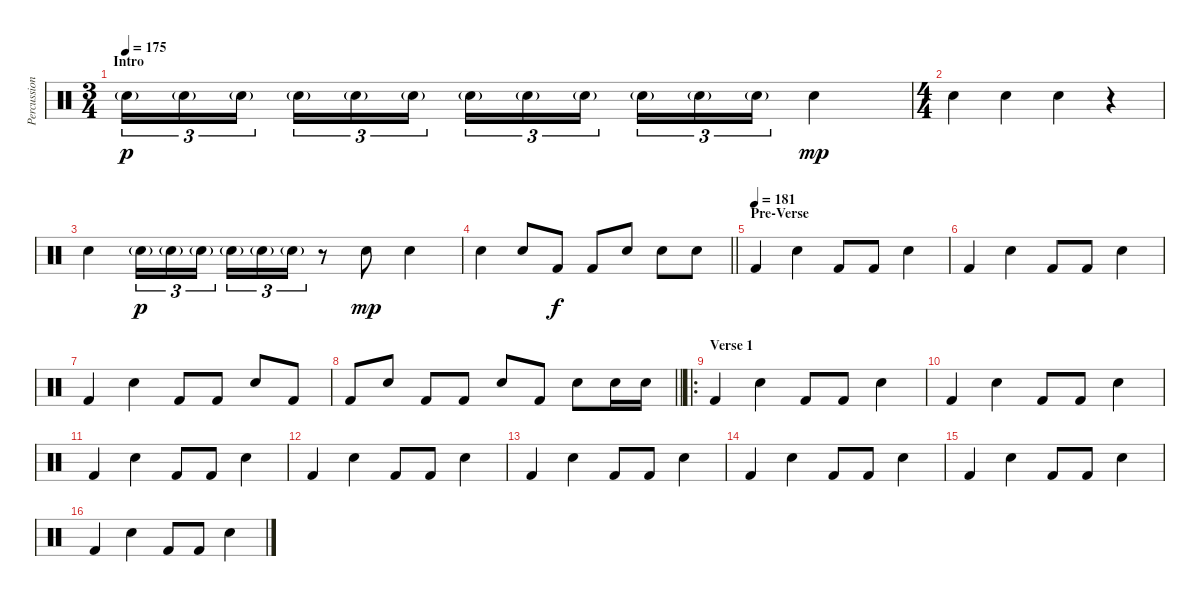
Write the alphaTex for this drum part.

\track ("Percussions" "Percussion") {instrument percussion}
\staff {score}
\articulation defaults
\ts (3 4)
\section ("" "Intro")
\tempo 175
\clef neutral
\ks c "Snare (hit) 2"{g}.16{tu (3 2) dy p} "Snare (hit) 2"{g}.16{tu (3 2)} "Snare (hit) 2"{g}.16{tu (3 2)} "Snare (hit) 2"{g}.16{tu (3 2)} "Snare (hit) 2"{g}.16{tu (3 2)} "Snare (hit) 2"{g}.16{tu (3 2)} "Snare (hit) 2"{g}.16{tu (3 2)} "Snare (hit) 2"{g}.16{tu (3 2)} "Snare (hit) 2"{g}.16{tu (3 2)} "Snare (hit) 2"{g}.16{tu (3 2)} "Snare (hit) 2"{g}.16{tu (3 2)} "Snare (hit) 2"{g}.16{tu (3 2)} "Snare (hit) 2".4{dy mp}
|
\ts (4 4)
"Snare (hit) 2".4 "Snare (hit) 2".4 "Snare (hit) 2".4 r.4 |
"Snare (hit) 2".4 "Snare (hit) 2"{g}.16{tu (3 2) dy p} "Snare (hit) 2"{g}.16{tu (3 2)} "Snare (hit) 2"{g}.16{tu (3 2)} "Snare (hit) 2"{g}.16{tu (3 2)} "Snare (hit) 2"{g}.16{tu (3 2)} "Snare (hit) 2"{g}.16{tu (3 2)} r.8 "Snare (hit) 2".8{dy mp} "Snare (hit) 2".4 |
\barLineRight lightlight "Snare (hit) 2".4 "Snare (hit) 2".8 "Kick (hit) 2".8{dy f} "Kick (hit) 2".8 "Snare (hit) 2".8 "Snare (hit) 2".8 "Snare (hit) 2".8
|
\section ("" "Pre-Verse")
\tempo (181)
"Kick (hit) 2".4 "Snare (hit) 2".4 "Kick (hit) 2".8 "Kick (hit) 2".8 "Snare (hit) 2".4 |
"Kick (hit) 2".4 "Snare (hit) 2".4 "Kick (hit) 2".8 "Kick (hit) 2".8 "Snare (hit) 2".4 |
"Kick (hit) 2".4 "Snare (hit) 2".4 "Kick (hit) 2".8 "Kick (hit) 2".8 "Snare (hit) 2".8 "Kick (hit) 2".8 |
\barLineRight lightlight "Kick (hit) 2".8 "Snare (hit) 2".8 "Kick (hit) 2".8 "Kick (hit) 2".8 "Snare (hit) 2".8 "Kick (hit) 2".8 "Snare (hit) 2".8 "Snare (hit) 2".16 "Snare (hit) 2".16
|
\ro
\section ("" "Verse 1")
"Kick (hit) 2".4 "Snare (hit) 2".4 "Kick (hit) 2".8 "Kick (hit) 2".8 "Snare (hit) 2".4 |
"Kick (hit) 2".4 "Snare (hit) 2".4 "Kick (hit) 2".8 "Kick (hit) 2".8 "Snare (hit) 2".4 |
"Kick (hit) 2".4 "Snare (hit) 2".4 "Kick (hit) 2".8 "Kick (hit) 2".8 "Snare (hit) 2".4 |
"Kick (hit) 2".4 "Snare (hit) 2".4 "Kick (hit) 2".8 "Kick (hit) 2".8 "Snare (hit) 2".4 |
"Kick (hit) 2".4 "Snare (hit) 2".4 "Kick (hit) 2".8 "Kick (hit) 2".8 "Snare (hit) 2".4 |
"Kick (hit) 2".4 "Snare (hit) 2".4 "Kick (hit) 2".8 "Kick (hit) 2".8 "Snare (hit) 2".4 |
"Kick (hit) 2".4 "Snare (hit) 2".4 "Kick (hit) 2".8 "Kick (hit) 2".8 "Snare (hit) 2".4 |
"Kick (hit) 2".4 "Snare (hit) 2".4 "Kick (hit) 2".8 "Kick (hit) 2".8 "Snare (hit) 2".4
